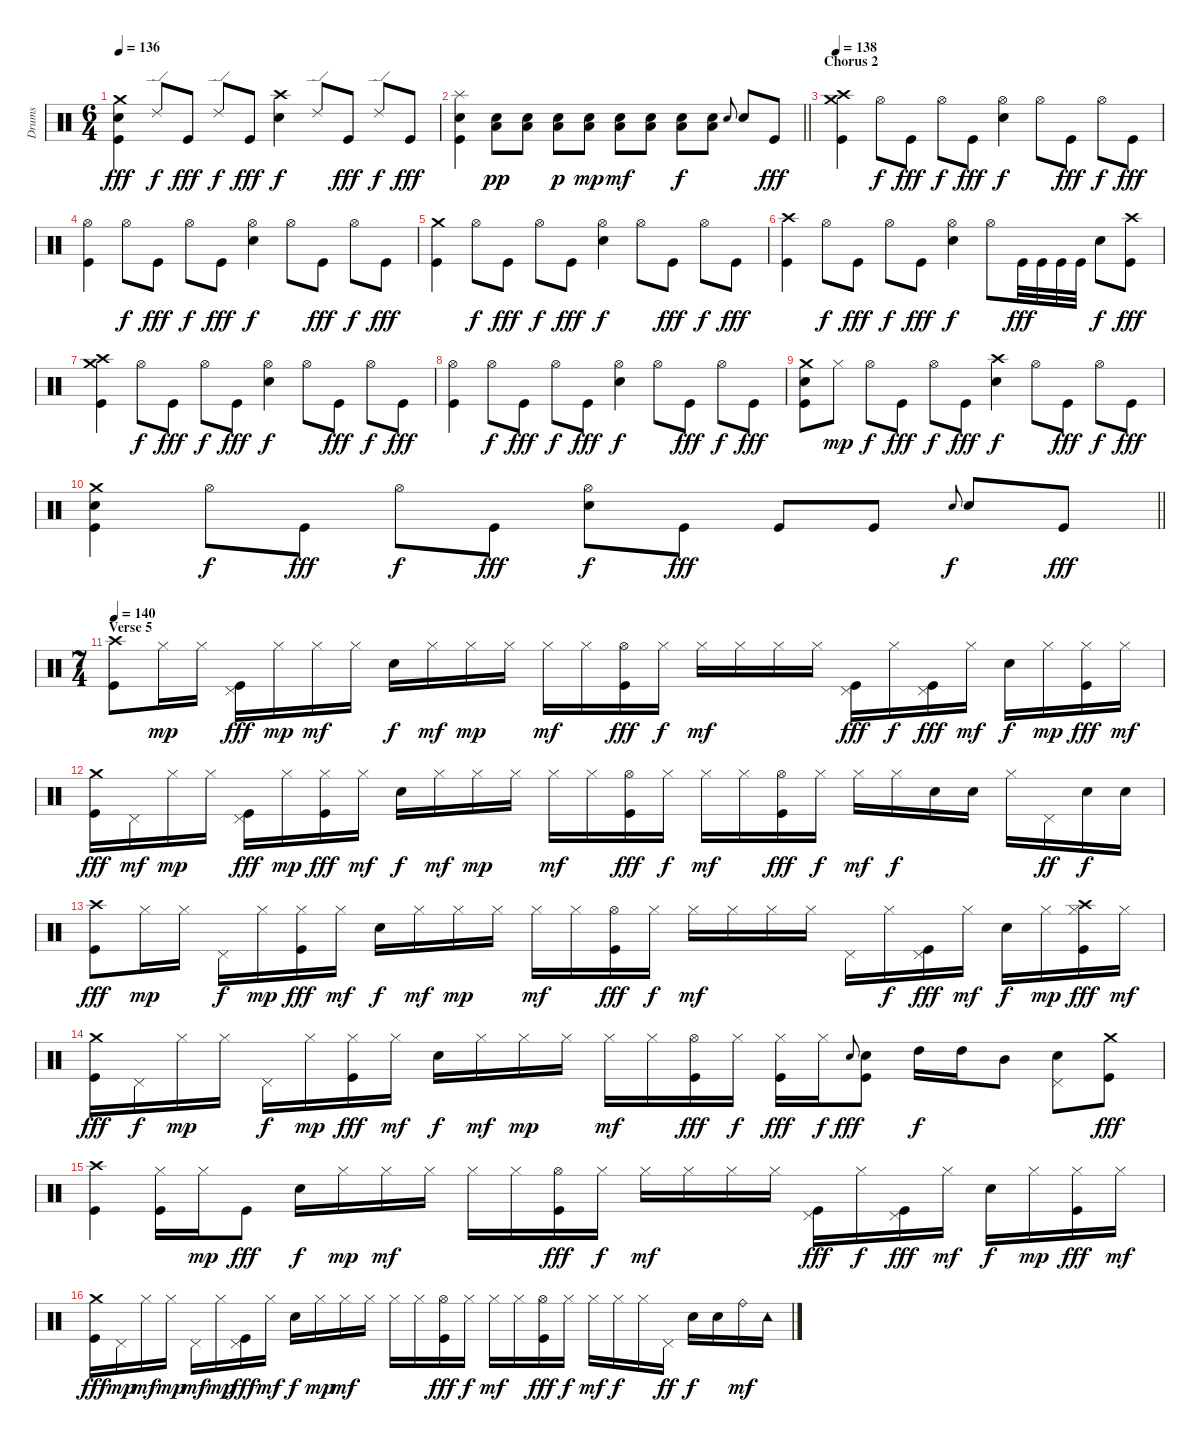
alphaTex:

\track ("Drums" "Drums") {instrument percussion}
\staff {score}
\articulation defaults
\ts (6 4)
\tempo 136
\clef neutral
\ks c
("Crash medium (hit)" "Electric Snare (hit)" "Kick (hit)").4{dy fff} "Ride (edge) 2".8{dy f} "Kick (hit)".8{dy fff} "Ride (edge) 2".8{dy f} "Kick (hit)".8{dy fff} ("Crash high (hit)" "Electric Snare (hit)").4{dy f} "Ride (edge) 2".8 "Kick (hit)".8{dy fff} "Ride (edge) 2".8{dy f} "Kick (hit)".8{dy fff} |
\barLineRight lightlight
("Splash (hit)" "Electric Snare (hit)" "Kick (hit)").4 ("Electric Snare (hit)" "Low Floor Tom (hit)").8{dy pp} ("Electric Snare (hit)" "Low Floor Tom (hit)").8 ("Electric Snare (hit)" "Low Floor Tom (hit)").8{dy p} ("Electric Snare (hit)" "Low Floor Tom (hit)").8{dy mp} ("Electric Snare (hit)" "Low Floor Tom (hit)").8{dy mf} ("Electric Snare (hit)" "Low Floor Tom (hit)").8 ("Electric Snare (hit)" "Low Floor Tom (hit)").8{dy f} ("Electric Snare (hit)" "Low Floor Tom (hit)").8 "Electric Snare (hit)".8{gr onbeat} "Electric Snare (hit)".8 "Kick (hit)".8{dy fff} |
\section ("" "Chorus 2")
\tempo 138
("Crash medium (hit)" "Crash high (hit)" "Kick (hit)").4 "Hi-Hat (open)".8{dy f} "Kick (hit)".8{dy fff} "Hi-Hat (open)".8{dy f} "Kick (hit)".8{dy fff} ("Hi-Hat (open)" "Electric Snare (hit)").4{dy f} "Hi-Hat (open)".8 "Kick (hit)".8{dy fff} "Hi-Hat (open)".8{dy f} "Kick (hit)".8{dy fff} |
("Hi-Hat (open)" "Kick (hit)").4 "Hi-Hat (open)".8{dy f} "Kick (hit)".8{dy fff} "Hi-Hat (open)".8{dy f} "Kick (hit)".8{dy fff} ("Hi-Hat (open)" "Electric Snare (hit)").4{dy f} "Hi-Hat (open)".8 "Kick (hit)".8{dy fff} "Hi-Hat (open)".8{dy f} "Kick (hit)".8{dy fff} |
("Crash medium (hit)" "Kick (hit)").4 "Hi-Hat (open)".8{dy f} "Kick (hit)".8{dy fff} "Hi-Hat (open)".8{dy f} "Kick (hit)".8{dy fff} ("Hi-Hat (open)" "Electric Snare (hit)").4{dy f} "Hi-Hat (open)".8 "Kick (hit)".8{dy fff} "Hi-Hat (open)".8{dy f} "Kick (hit)".8{dy fff} |
("Crash high (hit)" "Kick (hit)").4 "Hi-Hat (open)".8{dy f} "Kick (hit)".8{dy fff} "Hi-Hat (open)".8{dy f} "Kick (hit)".8{dy fff} ("Hi-Hat (open)" "Electric Snare (hit)").4{dy f} "Hi-Hat (open)".8 "Kick (hit)".32{dy fff} "Kick (hit)".32 "Kick (hit)".32 "Kick (hit)".32 "Electric Snare (hit)".8{dy f} ("Crash high (hit)" "Kick (hit)").8{dy fff} |
("Crash medium (hit)" "Crash high (hit)" "Kick (hit)").4 "Hi-Hat (open)".8{dy f} "Kick (hit)".8{dy fff} "Hi-Hat (open)".8{dy f} "Kick (hit)".8{dy fff} ("Hi-Hat (open)" "Electric Snare (hit)").4{dy f} "Hi-Hat (open)".8 "Kick (hit)".8{dy fff} "Hi-Hat (open)".8{dy f} "Kick (hit)".8{dy fff} |
("Hi-Hat (open)" "Kick (hit)").4 "Hi-Hat (open)".8{dy f} "Kick (hit)".8{dy fff} "Hi-Hat (open)".8{dy f} "Kick (hit)".8{dy fff} ("Hi-Hat (open)" "Electric Snare (hit)").4{dy f} "Hi-Hat (open)".8 "Kick (hit)".8{dy fff} "Hi-Hat (open)".8{dy f} "Kick (hit)".8{dy fff} |
("Crash medium (hit)" "Electric Snare (hit)" "Kick (hit)").8 "Hi-Hat (closed)".8{dy mp} "Hi-Hat (open)".8{dy f} "Kick (hit)".8{dy fff} "Hi-Hat (open)".8{dy f} "Kick (hit)".8{dy fff} ("Crash high (hit)" "Electric Snare (hit)").4{dy f} "Hi-Hat (open)".8 "Kick (hit)".8{dy fff} "Hi-Hat (open)".8{dy f} "Kick (hit)".8{dy fff} |
\barLineRight lightlight
("Crash medium (hit)" "Electric Snare (hit)" "Kick (hit)").4 "Hi-Hat (open)".8{dy f} "Kick (hit)".8{dy fff} "Hi-Hat (open)".8{dy f} "Kick (hit)".8{dy fff} ("Hi-Hat (open)" "Electric Snare (hit)").8{dy f} "Kick (hit)".8{dy fff} "Kick (hit)".8 "Kick (hit)".8 "Electric Snare (hit)".8{gr onbeat dy f} "Electric Snare (hit)".8 "Kick (hit)".8{dy fff} |
\ts (7 4)
\section ("" "Verse 5")
\tempo 140
("Crash high (hit)" "Kick (hit)").8 "Hi-Hat (closed)".16{dy mp} "Hi-Hat (closed)".16 ("Pedal Hi-Hat (hit)" "Kick (hit)").16{dy fff} "Hi-Hat (closed)".16{dy mp} "Hi-Hat (closed)".16{dy mf} "Hi-Hat (closed)".16 "Electric Snare (hit)".16{dy f} "Hi-Hat (closed)".16{dy mf} "Hi-Hat (closed)".16{dy mp} "Hi-Hat (closed)".16 "Hi-Hat (closed)".16{dy mf} "Hi-Hat (closed)".16 ("Hi-Hat (open)" "Kick (hit)").16{dy fff} "Hi-Hat (closed)".16{dy f} "Hi-Hat (closed)".16{dy mf} "Hi-Hat (closed)".16 "Hi-Hat (closed)".16 "Hi-Hat (closed)".16 ("Pedal Hi-Hat (hit)" "Kick (hit)").16{dy fff} "Hi-Hat (closed)".16{dy f} ("Pedal Hi-Hat (hit)" "Kick (hit)").16{dy fff} "Hi-Hat (closed)".16{dy mf} "Electric Snare (hit)".16{dy f} "Hi-Hat (closed)".16{dy mp} ("Hi-Hat (closed)" "Kick (hit)").16{dy fff} "Hi-Hat (closed)".16{dy mf} |
("Crash medium (hit)" "Kick (hit)").16{dy fff} "Pedal Hi-Hat (hit)".16{dy mf} "Hi-Hat (closed)".16{dy mp} "Hi-Hat (closed)".16 ("Pedal Hi-Hat (hit)" "Kick (hit)").16{dy fff} "Hi-Hat (closed)".16{dy mp} ("Hi-Hat (closed)" "Kick (hit)").16{dy fff} "Hi-Hat (closed)".16{dy mf} "Electric Snare (hit)".16{dy f} "Hi-Hat (closed)".16{dy mf} "Hi-Hat (closed)".16{dy mp} "Hi-Hat (closed)".16 "Hi-Hat (closed)".16{dy mf} "Hi-Hat (closed)".16 ("Hi-Hat (open)" "Kick (hit)").16{dy fff} "Hi-Hat (closed)".16{dy f} "Hi-Hat (closed)".16{dy mf} "Hi-Hat (closed)".16 ("Hi-Hat (open)" "Kick (hit)").16{dy fff} "Hi-Hat (closed)".16{dy f} "Hi-Hat (closed)".16{dy mf} "Hi-Hat (closed)".16{dy f} "Electric Snare (hit)".16 "Electric Snare (hit)".16 "Hi-Hat (closed)".16 "Pedal Hi-Hat (hit)".16{dy ff} "Electric Snare (hit)".16{dy f} "Electric Snare (hit)".16 |
("Crash high (hit)" "Kick (hit)").8{dy fff} "Hi-Hat (closed)".16{dy mp} "Hi-Hat (closed)".16 "Pedal Hi-Hat (hit)".16{dy f} "Hi-Hat (closed)".16{dy mp} ("Hi-Hat (closed)" "Kick (hit)").16{dy fff} "Hi-Hat (closed)".16{dy mf} "Electric Snare (hit)".16{dy f} "Hi-Hat (closed)".16{dy mf} "Hi-Hat (closed)".16{dy mp} "Hi-Hat (closed)".16 "Hi-Hat (closed)".16{dy mf} "Hi-Hat (closed)".16 ("Hi-Hat (open)" "Kick (hit)").16{dy fff} "Hi-Hat (closed)".16{dy f} "Hi-Hat (closed)".16{dy mf} "Hi-Hat (closed)".16 "Hi-Hat (closed)".16 "Hi-Hat (closed)".16 "Pedal Hi-Hat (hit)".16 "Hi-Hat (closed)".16{dy f} ("Pedal Hi-Hat (hit)" "Kick (hit)").16{dy fff} "Hi-Hat (closed)".16{dy mf} "Electric Snare (hit)".16{dy f} "Hi-Hat (closed)".16{dy mp} ("Crash high (hit)" "Hi-Hat (closed)" "Kick (hit)").16{dy fff} "Hi-Hat (closed)".16{dy mf} |
("Crash medium (hit)" "Kick (hit)").16{dy fff} "Pedal Hi-Hat (hit)".16{dy f} "Hi-Hat (closed)".16{dy mp} "Hi-Hat (closed)".16 "Pedal Hi-Hat (hit)".16{dy f} "Hi-Hat (closed)".16{dy mp} ("Hi-Hat (closed)" "Kick (hit)").16{dy fff} "Hi-Hat (closed)".16{dy mf} "Electric Snare (hit)".16{dy f} "Hi-Hat (closed)".16{dy mf} "Hi-Hat (closed)".16{dy mp} "Hi-Hat (closed)".16 "Hi-Hat (closed)".16{dy mf} "Hi-Hat (closed)".16 ("Hi-Hat (open)" "Kick (hit)").16{dy fff} "Hi-Hat (closed)".16{dy f} ("Hi-Hat (closed)" "Kick (hit)").16{dy fff} "Hi-Hat (closed)".16{dy f} "Electric Snare (hit)".8{gr onbeat dy fff} ("Electric Snare (hit)" "Kick (hit)").8 "High Tom (hit)".16{dy f} "High Tom (hit)".16 "Mid Tom (hit)".8 ("Pedal Hi-Hat (hit)" "Electric Snare (hit)").8 ("Crash medium (hit)" "Kick (hit)").8{dy fff} |
("Crash high (hit)" "Kick (hit)").4 ("Hi-Hat (closed)" "Kick (hit)").16 "Hi-Hat (closed)".16{dy mp} "Kick (hit)".8{dy fff} "Electric Snare (hit)".16{dy f} "Hi-Hat (closed)".16{dy mp} "Hi-Hat (closed)".16{dy mf} "Hi-Hat (closed)".16 "Hi-Hat (closed)".16 "Hi-Hat (closed)".16 ("Hi-Hat (open)" "Kick (hit)").16{dy fff} "Hi-Hat (closed)".16{dy f} "Hi-Hat (closed)".16{dy mf} "Hi-Hat (closed)".16 "Hi-Hat (closed)".16 "Hi-Hat (closed)".16 ("Pedal Hi-Hat (hit)" "Kick (hit)").16{dy fff} "Hi-Hat (closed)".16{dy f} ("Pedal Hi-Hat (hit)" "Kick (hit)").16{dy fff} "Hi-Hat (closed)".16{dy mf} "Electric Snare (hit)".16{dy f} "Hi-Hat (closed)".16{dy mp} ("Hi-Hat (closed)" "Kick (hit)").16{dy fff} "Hi-Hat (closed)".16{dy mf} |
("Crash medium (hit)" "Kick (hit)").16{dy fff} "Pedal Hi-Hat (hit)".16{dy mp} "Hi-Hat (closed)".16{dy mf} "Hi-Hat (closed)".16{dy mp} "Pedal Hi-Hat (hit)".16{dy mf} "Hi-Hat (closed)".16{dy mp} ("Pedal Hi-Hat (hit)" "Kick (hit)").16{dy fff} "Hi-Hat (closed)".16{dy mf} "Electric Snare (hit)".16{dy f} "Hi-Hat (closed)".16{dy mp} "Hi-Hat (closed)".16{dy mf} "Hi-Hat (closed)".16 "Hi-Hat (closed)".16 "Hi-Hat (closed)".16 ("Hi-Hat (open)" "Kick (hit)").16{dy fff} "Hi-Hat (closed)".16{dy f} "Hi-Hat (closed)".16{dy mf} "Hi-Hat (closed)".16 ("Hi-Hat (open)" "Kick (hit)").16{dy fff} "Hi-Hat (closed)".16{dy f} "Hi-Hat (closed)".16{dy mf} "Hi-Hat (closed)".16{dy f} "Hi-Hat (closed)".16 "Pedal Hi-Hat (hit)".16{dy ff} "Electric Snare (hit)".16{dy f} "Electric Snare (hit)".16 "Ride (bell)".16{dy mf} "Tambourine (hit)".16
